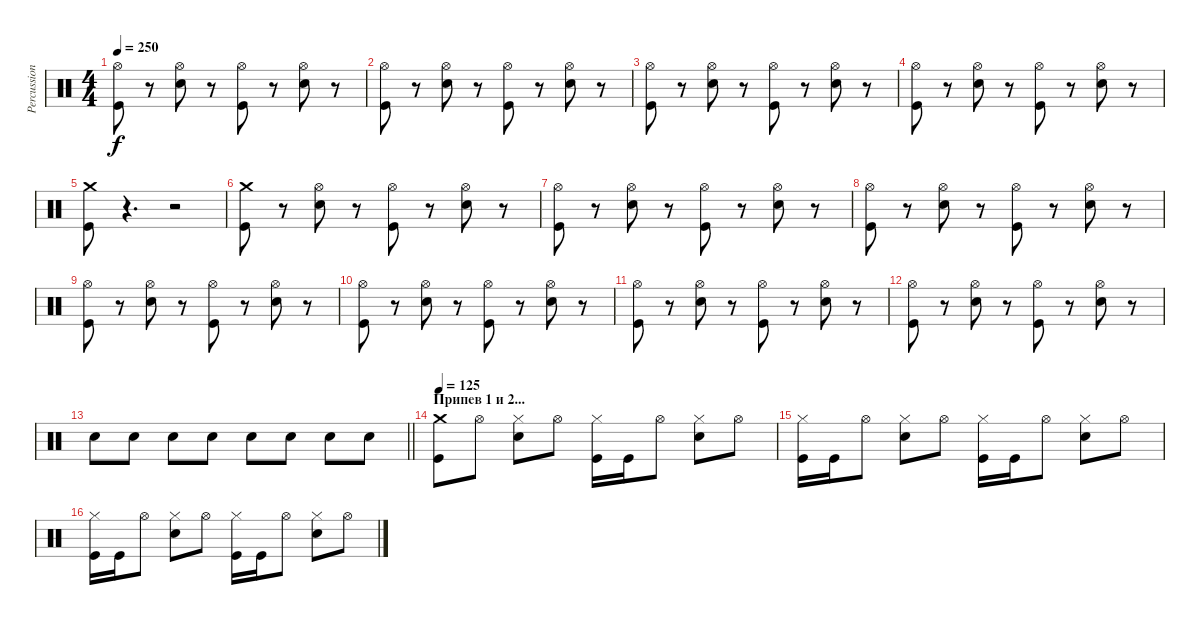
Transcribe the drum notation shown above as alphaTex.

\track ("Percussion" "Percussion") {instrument percussion}
\staff {score}
\articulation defaults
\ts (4 4)
\tempo 250
\clef neutral
\ks c
("Hi-Hat (open)" "Kick (hit)").8{dy f} r.8 ("Hi-Hat (open)" "Electric Snare (hit)").8 r.8 ("Hi-Hat (open)" "Kick (hit)").8 r.8 ("Hi-Hat (open)" "Electric Snare (hit)").8 r.8 |
("Hi-Hat (open)" "Kick (hit)").8 r.8 ("Hi-Hat (open)" "Electric Snare (hit)").8 r.8 ("Hi-Hat (open)" "Kick (hit)").8 r.8 ("Hi-Hat (open)" "Electric Snare (hit)").8 r.8 |
("Hi-Hat (open)" "Kick (hit)").8 r.8 ("Hi-Hat (open)" "Electric Snare (hit)").8 r.8 ("Hi-Hat (open)" "Kick (hit)").8 r.8 ("Hi-Hat (open)" "Electric Snare (hit)").8 r.8 |
("Hi-Hat (open)" "Kick (hit)").8 r.8 ("Hi-Hat (open)" "Electric Snare (hit)").8 r.8 ("Hi-Hat (open)" "Kick (hit)").8 r.8 ("Hi-Hat (open)" "Electric Snare (hit)").8 r.8 |
("Crash medium (hit)" "Kick (hit)").8 r.4{d} r.2 |
("Crash medium (hit)" "Kick (hit)").8 r.8 ("Hi-Hat (open)" "Electric Snare (hit)").8 r.8 ("Hi-Hat (open)" "Kick (hit)").8 r.8 ("Hi-Hat (open)" "Electric Snare (hit)").8 r.8 |
("Hi-Hat (open)" "Kick (hit)").8 r.8 ("Hi-Hat (open)" "Electric Snare (hit)").8 r.8 ("Hi-Hat (open)" "Kick (hit)").8 r.8 ("Hi-Hat (open)" "Electric Snare (hit)").8 r.8 |
("Hi-Hat (open)" "Kick (hit)").8 r.8 ("Hi-Hat (open)" "Electric Snare (hit)").8 r.8 ("Hi-Hat (open)" "Kick (hit)").8 r.8 ("Hi-Hat (open)" "Electric Snare (hit)").8 r.8 |
("Hi-Hat (open)" "Kick (hit)").8 r.8 ("Hi-Hat (open)" "Electric Snare (hit)").8 r.8 ("Hi-Hat (open)" "Kick (hit)").8 r.8 ("Hi-Hat (open)" "Electric Snare (hit)").8 r.8 |
("Hi-Hat (open)" "Kick (hit)").8 r.8 ("Hi-Hat (open)" "Electric Snare (hit)").8 r.8 ("Hi-Hat (open)" "Kick (hit)").8 r.8 ("Hi-Hat (open)" "Electric Snare (hit)").8 r.8 |
("Hi-Hat (open)" "Kick (hit)").8 r.8 ("Hi-Hat (open)" "Electric Snare (hit)").8 r.8 ("Hi-Hat (open)" "Kick (hit)").8 r.8 ("Hi-Hat (open)" "Electric Snare (hit)").8 r.8 |
("Hi-Hat (open)" "Kick (hit)").8 r.8 ("Hi-Hat (open)" "Electric Snare (hit)").8 r.8 ("Hi-Hat (open)" "Kick (hit)").8 r.8 ("Hi-Hat (open)" "Electric Snare (hit)").8 r.8 |
\barLineRight lightlight "Electric Snare (hit)".8 "Electric Snare (hit)".8 "Electric Snare (hit)".8 "Electric Snare (hit)".8 "Electric Snare (hit)".8 "Electric Snare (hit)".8 "Electric Snare (hit)".8 "Electric Snare (hit)".8
|
\section ("" "Припев 1 и 2...")
\tempo 125
("Crash medium (hit)" "Kick (hit)").8 "Hi-Hat (open)".8 ("Hi-Hat (closed)" "Electric Snare (hit)").8 "Hi-Hat (open)".8 ("Hi-Hat (closed)" "Kick (hit)").16 "Kick (hit)".16 "Hi-Hat (open)".8 ("Hi-Hat (closed)" "Electric Snare (hit)").8 "Hi-Hat (open)".8 |
("Hi-Hat (closed)" "Kick (hit)").16 "Kick (hit)".16 "Hi-Hat (open)".8 ("Hi-Hat (closed)" "Electric Snare (hit)").8 "Hi-Hat (open)".8 ("Hi-Hat (closed)" "Kick (hit)").16 "Kick (hit)".16 "Hi-Hat (open)".8 ("Hi-Hat (closed)" "Electric Snare (hit)").8 "Hi-Hat (open)".8 |
("Hi-Hat (closed)" "Kick (hit)").16 "Kick (hit)".16 "Hi-Hat (open)".8 ("Hi-Hat (closed)" "Electric Snare (hit)").8 "Hi-Hat (open)".8 ("Hi-Hat (closed)" "Kick (hit)").16 "Kick (hit)".16 "Hi-Hat (open)".8 ("Hi-Hat (closed)" "Electric Snare (hit)").8 "Hi-Hat (open)".8
